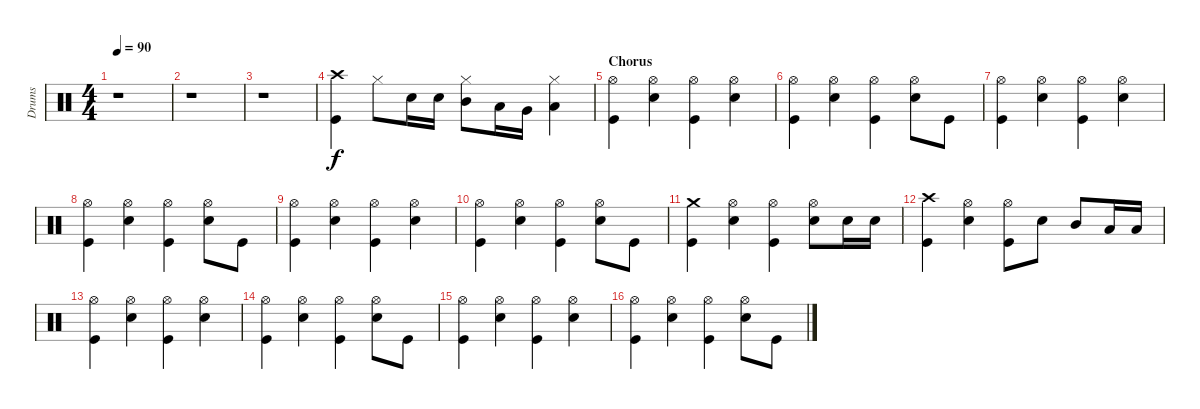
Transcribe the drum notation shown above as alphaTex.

\track ("Drums" "Drums") {instrument percussion}
\staff {score}
\articulation defaults
\ts (4 4)
\tempo 90
\clef neutral
\ks c
r.1{dy f} |
r.1 |
r.1 |
("Crash high (hit)" "Kick (hit)").4 "Hi-Hat (closed)".8 "Electric Snare (hit)".16 "Electric Snare (hit)".16 ("Hi-Hat (closed)" "Mid Tom (hit)").8 "Low Tom (hit)".16 "Very Low Tom (hit)".16 ("Hi-Hat (closed)" "Low Floor Tom (hit)").4 |
\section ("" "Chorus")
("Hi-Hat (open)" "Kick (hit)").4 ("Hi-Hat (open)" "Electric Snare (hit)").4 ("Hi-Hat (open)" "Kick (hit)").4 ("Hi-Hat (open)" "Electric Snare (hit)").4 |
("Hi-Hat (open)" "Kick (hit)").4 ("Hi-Hat (open)" "Electric Snare (hit)").4 ("Hi-Hat (open)" "Kick (hit)").4 ("Hi-Hat (open)" "Electric Snare (hit)").8 "Kick (hit)".8 |
("Hi-Hat (open)" "Kick (hit)").4 ("Hi-Hat (open)" "Electric Snare (hit)").4 ("Hi-Hat (open)" "Kick (hit)").4 ("Hi-Hat (open)" "Electric Snare (hit)").4 |
("Hi-Hat (open)" "Kick (hit)").4 ("Hi-Hat (open)" "Electric Snare (hit)").4 ("Hi-Hat (open)" "Kick (hit)").4 ("Hi-Hat (open)" "Electric Snare (hit)").8 "Kick (hit)".8 |
("Hi-Hat (open)" "Kick (hit)").4 ("Hi-Hat (open)" "Electric Snare (hit)").4 ("Hi-Hat (open)" "Kick (hit)").4 ("Hi-Hat (open)" "Electric Snare (hit)").4 |
("Hi-Hat (open)" "Kick (hit)").4 ("Hi-Hat (open)" "Electric Snare (hit)").4 ("Hi-Hat (open)" "Kick (hit)").4 ("Hi-Hat (open)" "Electric Snare (hit)").8 "Kick (hit)".8 |
("Crash medium (hit)" "Kick (hit)").4 ("Hi-Hat (open)" "Electric Snare (hit)").4 ("Hi-Hat (open)" "Kick (hit)").4 ("Hi-Hat (open)" "Electric Snare (hit)").8 "Electric Snare (hit)".16 "Electric Snare (hit)".16 |
("Crash high (hit)" "Kick (hit)").4 ("Hi-Hat (open)" "Electric Snare (hit)").4 ("Hi-Hat (open)" "Kick (hit)").8 "Electric Snare (hit)".8 "Mid Tom (hit)".8 "Low Floor Tom (hit)".16 "Low Tom (hit)".16 |
("Hi-Hat (open)" "Kick (hit)").4 ("Hi-Hat (open)" "Electric Snare (hit)").4 ("Hi-Hat (open)" "Kick (hit)").4 ("Hi-Hat (open)" "Electric Snare (hit)").4 |
("Hi-Hat (open)" "Kick (hit)").4 ("Hi-Hat (open)" "Electric Snare (hit)").4 ("Hi-Hat (open)" "Kick (hit)").4 ("Hi-Hat (open)" "Electric Snare (hit)").8 "Kick (hit)".8 |
("Hi-Hat (open)" "Kick (hit)").4 ("Hi-Hat (open)" "Electric Snare (hit)").4 ("Hi-Hat (open)" "Kick (hit)").4 ("Hi-Hat (open)" "Electric Snare (hit)").4 |
("Hi-Hat (open)" "Kick (hit)").4 ("Hi-Hat (open)" "Electric Snare (hit)").4 ("Hi-Hat (open)" "Kick (hit)").4 ("Hi-Hat (open)" "Electric Snare (hit)").8 "Kick (hit)".8
